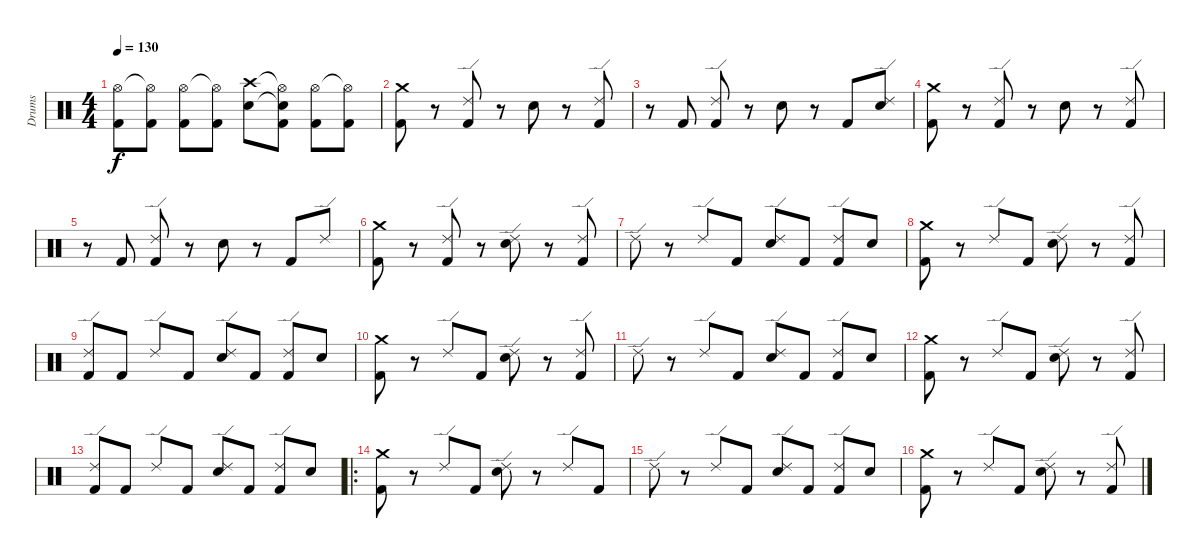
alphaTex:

\track ("Drums" "Drums") {instrument percussion}
\staff {score}
\articulation defaults
\ts (4 4)
\tempo 130
\clef neutral
\ks c
("Hi-Hat (open)" "Kick (hit) 2"{t}).8{dy f} ("Hi-Hat (open)"{t} "Kick (hit) 2").8 ("Hi-Hat (open)" "Kick (hit) 2").8 ("Hi-Hat (open)"{t} "Kick (hit) 2").8 ("Crash high (hit)" "Electric Snare (hit)").8 ("Hi-Hat (open)"{t} "Snare (hit)"{t} "Kick (hit) 2").8 ("Hi-Hat (open)" "Kick (hit) 2").8 ("Hi-Hat (open)"{t} "Kick (hit) 2").8 |
("Crash medium (hit)" "Kick (hit) 2").8 r.8 ("Ride (edge) 2" "Kick (hit) 2").8 r.8 "Electric Snare (hit)".8 r.8 ("Ride (edge) 2" "Kick (hit) 2").8 |
r.8 "Kick (hit) 2".8 ("Ride (edge) 2" "Kick (hit) 2").8 r.8 "Electric Snare (hit)".8 r.8 "Kick (hit) 2".8 ("Ride (edge) 2" "Electric Snare (hit)").8 |
("Crash medium (hit)" "Kick (hit) 2").8 r.8 ("Ride (edge) 2" "Kick (hit) 2").8 r.8 "Electric Snare (hit)".8 r.8 ("Ride (edge) 2" "Kick (hit) 2").8 |
r.8 "Kick (hit) 2".8 ("Ride (edge) 2" "Kick (hit) 2").8 r.8 "Electric Snare (hit)".8 r.8 "Kick (hit) 2".8 "Ride (edge) 2".8 |
("Crash medium (hit)" "Kick (hit) 2").8 r.8 ("Ride (edge) 2" "Kick (hit) 2").8 r.8 ("Ride (edge) 2" "Electric Snare (hit)").8 r.8 ("Ride (edge) 2" "Kick (hit) 2").8 |
"Ride (edge) 2".8 r.8 "Ride (edge) 2".8 "Kick (hit) 2".8 ("Ride (edge) 2" "Electric Snare (hit)").8 "Kick (hit) 2".8 ("Ride (edge) 2" "Kick (hit) 2").8 "Electric Snare (hit)".8 |
("Crash medium (hit)" "Kick (hit) 2").8 r.8 "Ride (edge) 2".8 "Kick (hit) 2".8 ("Ride (edge) 2" "Electric Snare (hit)").8 r.8 ("Ride (edge) 2" "Kick (hit) 2").8 |
("Ride (edge) 2" "Kick (hit) 2").8 "Kick (hit) 2".8 "Ride (edge) 2".8 "Kick (hit) 2".8 ("Ride (edge) 2" "Electric Snare (hit)").8 "Kick (hit) 2".8 ("Ride (edge) 2" "Kick (hit) 2").8 "Electric Snare (hit)".8 |
("Crash medium (hit)" "Kick (hit) 2").8 r.8 "Ride (edge) 2".8 "Kick (hit) 2".8 ("Ride (edge) 2" "Electric Snare (hit)").8 r.8 ("Ride (edge) 2" "Kick (hit) 2").8 |
"Ride (edge) 2".8 r.8 "Ride (edge) 2".8 "Kick (hit) 2".8 ("Ride (edge) 2" "Electric Snare (hit)").8 "Kick (hit) 2".8 ("Ride (edge) 2" "Kick (hit) 2").8 "Electric Snare (hit)".8 |
("Crash medium (hit)" "Kick (hit) 2").8 r.8 "Ride (edge) 2".8 "Kick (hit) 2".8 ("Ride (edge) 2" "Electric Snare (hit)").8 r.8 ("Ride (edge) 2" "Kick (hit) 2").8 |
("Ride (edge) 2" "Kick (hit) 2").8 "Kick (hit) 2".8 "Ride (edge) 2".8 "Kick (hit) 2".8 ("Ride (edge) 2" "Electric Snare (hit)").8 "Kick (hit) 2".8 ("Ride (edge) 2" "Kick (hit) 2").8 "Electric Snare (hit)".8 |
\ro
("Crash medium (hit)" "Kick (hit) 2").8 r.8 "Ride (edge) 2".8 "Kick (hit) 2".8 ("Ride (edge) 2" "Electric Snare (hit)").8 r.8 "Ride (edge) 2".8 "Kick (hit) 2".8 |
"Ride (edge) 2".8 r.8 "Ride (edge) 2".8 "Kick (hit) 2".8 ("Ride (edge) 2" "Electric Snare (hit)").8 "Kick (hit) 2".8 ("Ride (edge) 2" "Kick (hit) 2").8 "Electric Snare (hit)".8 |
("Crash medium (hit)" "Kick (hit) 2").8 r.8 "Ride (edge) 2".8 "Kick (hit) 2".8 ("Ride (edge) 2" "Electric Snare (hit)").8 r.8 ("Ride (edge) 2" "Kick (hit) 2").8
